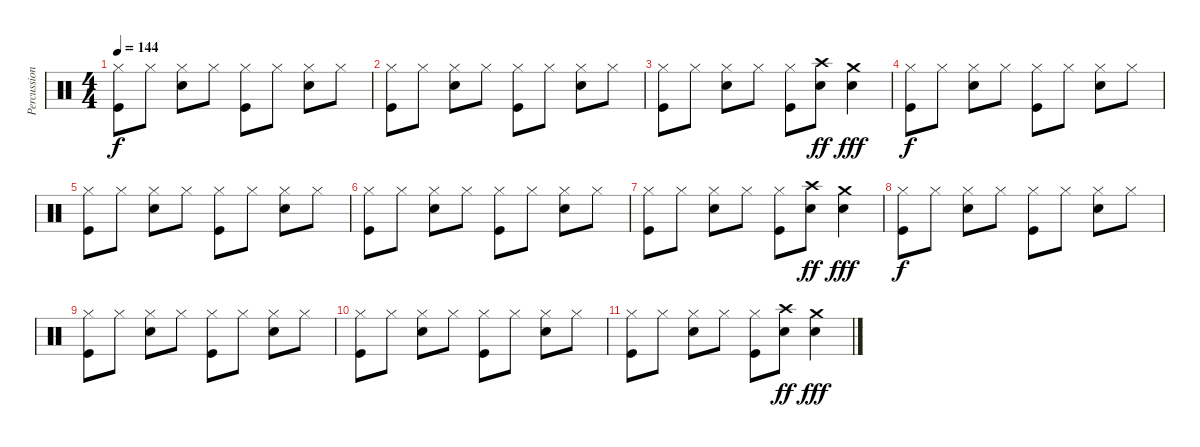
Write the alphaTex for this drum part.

\track ("Percussions" "Percussion") {instrument percussion}
\staff {score}
\articulation defaults
\ts (4 4)
\tempo 144
\clef neutral
\ks c
("Hi-Hat (closed)" "Kick (hit)").8{dy f} "Hi-Hat (closed)".8 ("Hi-Hat (closed)" "Snare (hit) 2").8 "Hi-Hat (closed)".8 ("Hi-Hat (closed)" "Kick (hit)").8 "Hi-Hat (closed)".8 ("Hi-Hat (closed)" "Snare (hit) 2").8 "Hi-Hat (closed)".8 |
("Hi-Hat (closed)" "Kick (hit)").8 "Hi-Hat (closed)".8 ("Hi-Hat (closed)" "Snare (hit) 2").8 "Hi-Hat (closed)".8 ("Hi-Hat (closed)" "Kick (hit)").8 "Hi-Hat (closed)".8 ("Hi-Hat (closed)" "Snare (hit) 2").8 "Hi-Hat (closed)".8 |
("Hi-Hat (closed)" "Kick (hit)").8 "Hi-Hat (closed)".8 ("Hi-Hat (closed)" "Snare (hit) 2").8 "Hi-Hat (closed)".8 ("Hi-Hat (closed)" "Kick (hit)").8 ("Crash high (hit)" "Snare (hit) 2").8{dy ff} ("Crash medium (hit)" "Snare (hit) 2").4{dy fff} |
("Hi-Hat (closed)" "Kick (hit)").8{dy f} "Hi-Hat (closed)".8 ("Hi-Hat (closed)" "Snare (hit) 2").8 "Hi-Hat (closed)".8 ("Hi-Hat (closed)" "Kick (hit)").8 "Hi-Hat (closed)".8 ("Hi-Hat (closed)" "Snare (hit) 2").8 "Hi-Hat (closed)".8 |
("Hi-Hat (closed)" "Kick (hit)").8 "Hi-Hat (closed)".8 ("Hi-Hat (closed)" "Snare (hit) 2").8 "Hi-Hat (closed)".8 ("Hi-Hat (closed)" "Kick (hit)").8 "Hi-Hat (closed)".8 ("Hi-Hat (closed)" "Snare (hit) 2").8 "Hi-Hat (closed)".8 |
("Hi-Hat (closed)" "Kick (hit)").8 "Hi-Hat (closed)".8 ("Hi-Hat (closed)" "Snare (hit) 2").8 "Hi-Hat (closed)".8 ("Hi-Hat (closed)" "Kick (hit)").8 "Hi-Hat (closed)".8 ("Hi-Hat (closed)" "Snare (hit) 2").8 "Hi-Hat (closed)".8 |
("Hi-Hat (closed)" "Kick (hit)").8 "Hi-Hat (closed)".8 ("Hi-Hat (closed)" "Snare (hit) 2").8 "Hi-Hat (closed)".8 ("Hi-Hat (closed)" "Kick (hit)").8 ("Crash high (hit)" "Snare (hit) 2").8{dy ff} ("Crash medium (hit)" "Snare (hit) 2").4{dy fff} |
("Hi-Hat (closed)" "Kick (hit)").8{dy f} "Hi-Hat (closed)".8 ("Hi-Hat (closed)" "Snare (hit) 2").8 "Hi-Hat (closed)".8 ("Hi-Hat (closed)" "Kick (hit)").8 "Hi-Hat (closed)".8 ("Hi-Hat (closed)" "Snare (hit) 2").8 "Hi-Hat (closed)".8 |
("Hi-Hat (closed)" "Kick (hit)").8 "Hi-Hat (closed)".8 ("Hi-Hat (closed)" "Snare (hit) 2").8 "Hi-Hat (closed)".8 ("Hi-Hat (closed)" "Kick (hit)").8 "Hi-Hat (closed)".8 ("Hi-Hat (closed)" "Snare (hit) 2").8 "Hi-Hat (closed)".8 |
("Hi-Hat (closed)" "Kick (hit)").8 "Hi-Hat (closed)".8 ("Hi-Hat (closed)" "Snare (hit) 2").8 "Hi-Hat (closed)".8 ("Hi-Hat (closed)" "Kick (hit)").8 "Hi-Hat (closed)".8 ("Hi-Hat (closed)" "Snare (hit) 2").8 "Hi-Hat (closed)".8 |
("Hi-Hat (closed)" "Kick (hit)").8 "Hi-Hat (closed)".8 ("Hi-Hat (closed)" "Snare (hit) 2").8 "Hi-Hat (closed)".8 ("Hi-Hat (closed)" "Kick (hit)").8 ("Crash high (hit)" "Snare (hit) 2").8{dy ff} ("Crash medium (hit)" "Snare (hit) 2").4{dy fff}
